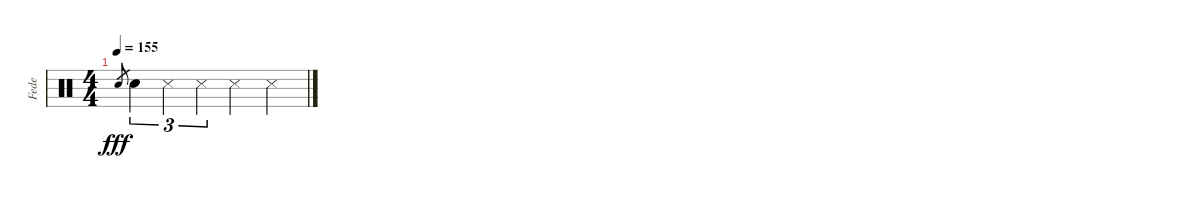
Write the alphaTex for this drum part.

\track ("Fede" "Fede") {instrument percussion}
\staff {score}
\articulation defaults
\ts (4 4)
\tempo 155
\clef neutral
\ks c "Snare (hit) 2".8{gr dy fff} "Snare (hit) 2".4{tu (3 2)} "Snare (side stick) 3".4{tu (3 2)} "Snare (side stick) 3".4{tu (3 2)} "Snare (side stick) 3".4 "Snare (side stick) 3".4
